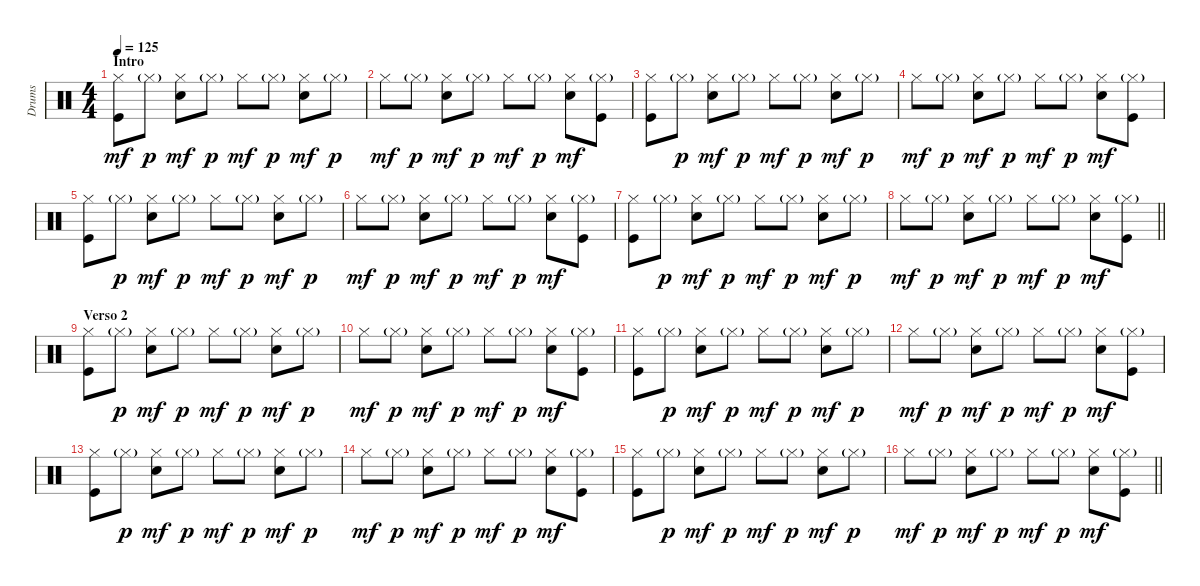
\track ("Drums" "Drums") {instrument percussion}
\staff {score}
\articulation defaults
\ts (4 4)
\section ("" "Intro")
\tempo 125
\clef neutral
\ks c
("Hi-Hat (closed)" "Kick (hit)").8{dy mf} "Hi-Hat (closed)"{g}.8{dy p} ("Hi-Hat (closed)" "Electric Snare (hit)").8{dy mf} "Hi-Hat (closed)"{g}.8{dy p} "Hi-Hat (closed)".8{dy mf} "Hi-Hat (closed)"{g}.8{dy p} ("Hi-Hat (closed)" "Electric Snare (hit)").8{dy mf} "Hi-Hat (closed)"{g}.8{dy p} |
"Hi-Hat (closed)".8{dy mf} "Hi-Hat (closed)"{g}.8{dy p} ("Hi-Hat (closed)" "Electric Snare (hit)").8{dy mf} "Hi-Hat (closed)"{g}.8{dy p} "Hi-Hat (closed)".8{dy mf} "Hi-Hat (closed)"{g}.8{dy p} ("Hi-Hat (closed)" "Electric Snare (hit)").8{dy mf} ("Hi-Hat (closed)"{g} "Kick (hit)").8 |
("Hi-Hat (closed)" "Kick (hit)").8 "Hi-Hat (closed)"{g}.8{dy p} ("Hi-Hat (closed)" "Electric Snare (hit)").8{dy mf} "Hi-Hat (closed)"{g}.8{dy p} "Hi-Hat (closed)".8{dy mf} "Hi-Hat (closed)"{g}.8{dy p} ("Hi-Hat (closed)" "Electric Snare (hit)").8{dy mf} "Hi-Hat (closed)"{g}.8{dy p} |
"Hi-Hat (closed)".8{dy mf} "Hi-Hat (closed)"{g}.8{dy p} ("Hi-Hat (closed)" "Electric Snare (hit)").8{dy mf} "Hi-Hat (closed)"{g}.8{dy p} "Hi-Hat (closed)".8{dy mf} "Hi-Hat (closed)"{g}.8{dy p} ("Hi-Hat (closed)" "Electric Snare (hit)").8{dy mf} ("Hi-Hat (closed)"{g} "Kick (hit)").8 |
("Hi-Hat (closed)" "Kick (hit)").8 "Hi-Hat (closed)"{g}.8{dy p} ("Hi-Hat (closed)" "Electric Snare (hit)").8{dy mf} "Hi-Hat (closed)"{g}.8{dy p} "Hi-Hat (closed)".8{dy mf} "Hi-Hat (closed)"{g}.8{dy p} ("Hi-Hat (closed)" "Electric Snare (hit)").8{dy mf} "Hi-Hat (closed)"{g}.8{dy p} |
"Hi-Hat (closed)".8{dy mf} "Hi-Hat (closed)"{g}.8{dy p} ("Hi-Hat (closed)" "Electric Snare (hit)").8{dy mf} "Hi-Hat (closed)"{g}.8{dy p} "Hi-Hat (closed)".8{dy mf} "Hi-Hat (closed)"{g}.8{dy p} ("Hi-Hat (closed)" "Electric Snare (hit)").8{dy mf} ("Hi-Hat (closed)"{g} "Kick (hit)").8 |
("Hi-Hat (closed)" "Kick (hit)").8 "Hi-Hat (closed)"{g}.8{dy p} ("Hi-Hat (closed)" "Electric Snare (hit)").8{dy mf} "Hi-Hat (closed)"{g}.8{dy p} "Hi-Hat (closed)".8{dy mf} "Hi-Hat (closed)"{g}.8{dy p} ("Hi-Hat (closed)" "Electric Snare (hit)").8{dy mf} "Hi-Hat (closed)"{g}.8{dy p} |
\barLineRight lightlight "Hi-Hat (closed)".8{dy mf} "Hi-Hat (closed)"{g}.8{dy p}
("Hi-Hat (closed)" "Electric Snare (hit)").8{dy mf} "Hi-Hat (closed)"{g}.8{dy p} "Hi-Hat (closed)".8{dy mf} "Hi-Hat (closed)"{g}.8{dy p} ("Hi-Hat (closed)" "Electric Snare (hit)").8{dy mf} ("Hi-Hat (closed)"{g} "Kick (hit)").8 |
\section ("" "Verso 2")
("Hi-Hat (closed)" "Kick (hit)").8 "Hi-Hat (closed)"{g}.8{dy p} ("Hi-Hat (closed)" "Electric Snare (hit)").8{dy mf} "Hi-Hat (closed)"{g}.8{dy p} "Hi-Hat (closed)".8{dy mf} "Hi-Hat (closed)"{g}.8{dy p} ("Hi-Hat (closed)" "Electric Snare (hit)").8{dy mf} "Hi-Hat (closed)"{g}.8{dy p} |
"Hi-Hat (closed)".8{dy mf} "Hi-Hat (closed)"{g}.8{dy p} ("Hi-Hat (closed)" "Electric Snare (hit)").8{dy mf} "Hi-Hat (closed)"{g}.8{dy p} "Hi-Hat (closed)".8{dy mf} "Hi-Hat (closed)"{g}.8{dy p} ("Hi-Hat (closed)" "Electric Snare (hit)").8{dy mf} ("Hi-Hat (closed)"{g} "Kick (hit)").8 |
("Hi-Hat (closed)" "Kick (hit)").8 "Hi-Hat (closed)"{g}.8{dy p} ("Hi-Hat (closed)" "Electric Snare (hit)").8{dy mf} "Hi-Hat (closed)"{g}.8{dy p} "Hi-Hat (closed)".8{dy mf} "Hi-Hat (closed)"{g}.8{dy p} ("Hi-Hat (closed)" "Electric Snare (hit)").8{dy mf} "Hi-Hat (closed)"{g}.8{dy p} |
"Hi-Hat (closed)".8{dy mf} "Hi-Hat (closed)"{g}.8{dy p} ("Hi-Hat (closed)" "Electric Snare (hit)").8{dy mf} "Hi-Hat (closed)"{g}.8{dy p} "Hi-Hat (closed)".8{dy mf} "Hi-Hat (closed)"{g}.8{dy p} ("Hi-Hat (closed)" "Electric Snare (hit)").8{dy mf} ("Hi-Hat (closed)"{g} "Kick (hit)").8 |
("Hi-Hat (closed)" "Kick (hit)").8 "Hi-Hat (closed)"{g}.8{dy p} ("Hi-Hat (closed)" "Electric Snare (hit)").8{dy mf} "Hi-Hat (closed)"{g}.8{dy p} "Hi-Hat (closed)".8{dy mf} "Hi-Hat (closed)"{g}.8{dy p} ("Hi-Hat (closed)" "Electric Snare (hit)").8{dy mf} "Hi-Hat (closed)"{g}.8{dy p} |
"Hi-Hat (closed)".8{dy mf} "Hi-Hat (closed)"{g}.8{dy p} ("Hi-Hat (closed)" "Electric Snare (hit)").8{dy mf} "Hi-Hat (closed)"{g}.8{dy p} "Hi-Hat (closed)".8{dy mf} "Hi-Hat (closed)"{g}.8{dy p} ("Hi-Hat (closed)" "Electric Snare (hit)").8{dy mf} ("Hi-Hat (closed)"{g} "Kick (hit)").8 |
("Hi-Hat (closed)" "Kick (hit)").8 "Hi-Hat (closed)"{g}.8{dy p} ("Hi-Hat (closed)" "Electric Snare (hit)").8{dy mf} "Hi-Hat (closed)"{g}.8{dy p} "Hi-Hat (closed)".8{dy mf} "Hi-Hat (closed)"{g}.8{dy p} ("Hi-Hat (closed)" "Electric Snare (hit)").8{dy mf} "Hi-Hat (closed)"{g}.8{dy p} |
\barLineRight lightlight "Hi-Hat (closed)".8{dy mf} "Hi-Hat (closed)"{g}.8{dy p}
("Hi-Hat (closed)" "Electric Snare (hit)").8{dy mf} "Hi-Hat (closed)"{g}.8{dy p} "Hi-Hat (closed)".8{dy mf} "Hi-Hat (closed)"{g}.8{dy p} ("Hi-Hat (closed)" "Electric Snare (hit)").8{dy mf} ("Hi-Hat (closed)"{g} "Kick (hit)").8
